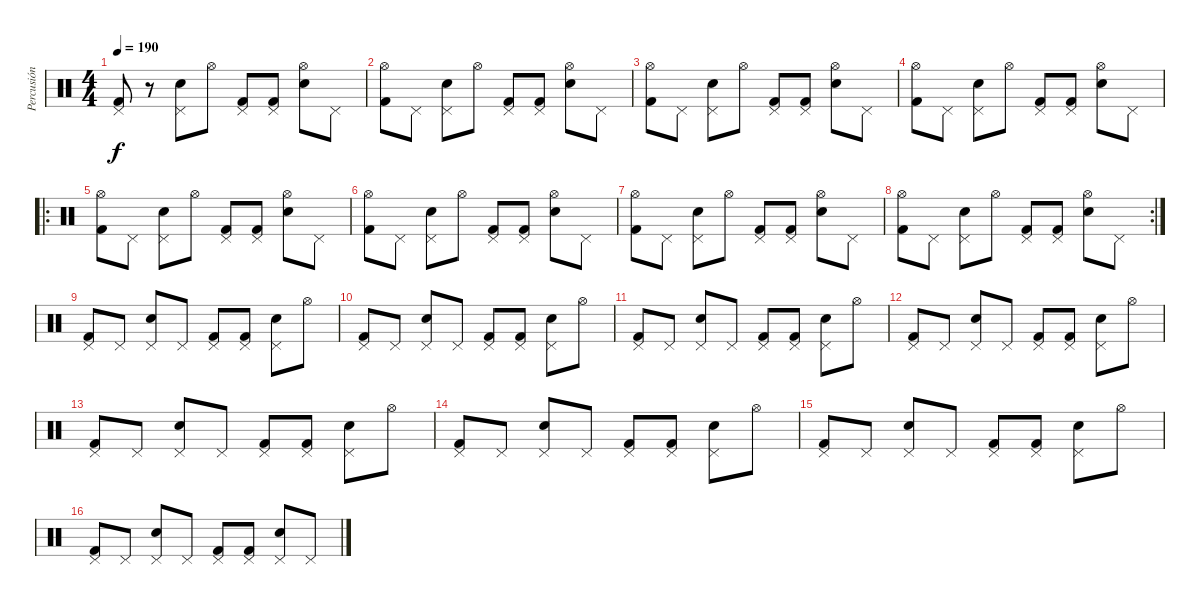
\track ("Percusión" "Percusión") {instrument percussion}
\staff {score}
\articulation defaults
\ts (4 4)
\tempo 190
\clef neutral
\ks c
("Pedal Hi-Hat (hit)" "Kick (hit) 2").8{dy f} r.8 ("Pedal Hi-Hat (hit)" "Snare (hit) 2").8 "Hi-Hat (open)".8 ("Pedal Hi-Hat (hit)" "Kick (hit) 2").8 ("Pedal Hi-Hat (hit)" "Kick (hit) 2").8 ("Hi-Hat (open)" "Snare (hit) 2").8 "Pedal Hi-Hat (hit)".8 |
("Hi-Hat (open)" "Kick (hit) 2").8 "Pedal Hi-Hat (hit)".8 ("Pedal Hi-Hat (hit)" "Snare (hit) 2").8 "Hi-Hat (open)".8 ("Pedal Hi-Hat (hit)" "Kick (hit) 2").8 ("Pedal Hi-Hat (hit)" "Kick (hit) 2").8 ("Hi-Hat (open)" "Snare (hit) 2").8 "Pedal Hi-Hat (hit)".8 |
("Hi-Hat (open)" "Kick (hit) 2").8 "Pedal Hi-Hat (hit)".8 ("Pedal Hi-Hat (hit)" "Snare (hit) 2").8 "Hi-Hat (open)".8 ("Pedal Hi-Hat (hit)" "Kick (hit) 2").8 ("Pedal Hi-Hat (hit)" "Kick (hit) 2").8 ("Hi-Hat (open)" "Snare (hit) 2").8 "Pedal Hi-Hat (hit)".8 |
("Hi-Hat (open)" "Kick (hit) 2").8 "Pedal Hi-Hat (hit)".8 ("Pedal Hi-Hat (hit)" "Snare (hit) 2").8 "Hi-Hat (open)".8 ("Pedal Hi-Hat (hit)" "Kick (hit) 2").8 ("Pedal Hi-Hat (hit)" "Kick (hit) 2").8 ("Hi-Hat (open)" "Snare (hit) 2").8 "Pedal Hi-Hat (hit)".8 |
\ro
("Hi-Hat (open)" "Kick (hit) 2").8 "Pedal Hi-Hat (hit)".8 ("Pedal Hi-Hat (hit)" "Snare (hit) 2").8 "Hi-Hat (open)".8 ("Pedal Hi-Hat (hit)" "Kick (hit) 2").8 ("Pedal Hi-Hat (hit)" "Kick (hit) 2").8 ("Hi-Hat (open)" "Snare (hit) 2").8 "Pedal Hi-Hat (hit)".8 |
("Hi-Hat (open)" "Kick (hit) 2").8 "Pedal Hi-Hat (hit)".8 ("Pedal Hi-Hat (hit)" "Snare (hit) 2").8 "Hi-Hat (open)".8 ("Pedal Hi-Hat (hit)" "Kick (hit) 2").8 ("Pedal Hi-Hat (hit)" "Kick (hit) 2").8 ("Hi-Hat (open)" "Snare (hit) 2").8 "Pedal Hi-Hat (hit)".8 |
("Hi-Hat (open)" "Kick (hit) 2").8 "Pedal Hi-Hat (hit)".8 ("Pedal Hi-Hat (hit)" "Snare (hit) 2").8 "Hi-Hat (open)".8 ("Pedal Hi-Hat (hit)" "Kick (hit) 2").8 ("Pedal Hi-Hat (hit)" "Kick (hit) 2").8 ("Hi-Hat (open)" "Snare (hit) 2").8 "Pedal Hi-Hat (hit)".8 |
\rc 2
("Hi-Hat (open)" "Kick (hit) 2").8 "Pedal Hi-Hat (hit)".8 ("Pedal Hi-Hat (hit)" "Snare (hit) 2").8 "Hi-Hat (open)".8 ("Pedal Hi-Hat (hit)" "Kick (hit) 2").8 ("Pedal Hi-Hat (hit)" "Kick (hit) 2").8 ("Hi-Hat (open)" "Snare (hit) 2").8 "Pedal Hi-Hat (hit)".8 |
("Pedal Hi-Hat (hit)" "Kick (hit) 2").8 "Pedal Hi-Hat (hit)".8 ("Pedal Hi-Hat (hit)" "Snare (hit) 2").8 "Pedal Hi-Hat (hit)".8 ("Pedal Hi-Hat (hit)" "Kick (hit) 2").8 ("Pedal Hi-Hat (hit)" "Kick (hit) 2").8 ("Pedal Hi-Hat (hit)" "Snare (hit) 2").8 "Hi-Hat (open)".8 |
("Pedal Hi-Hat (hit)" "Kick (hit) 2").8 "Pedal Hi-Hat (hit)".8 ("Pedal Hi-Hat (hit)" "Snare (hit) 2").8 "Pedal Hi-Hat (hit)".8 ("Pedal Hi-Hat (hit)" "Kick (hit) 2").8 ("Pedal Hi-Hat (hit)" "Kick (hit) 2").8 ("Pedal Hi-Hat (hit)" "Snare (hit) 2").8 "Hi-Hat (open)".8 |
("Pedal Hi-Hat (hit)" "Kick (hit) 2").8 "Pedal Hi-Hat (hit)".8 ("Pedal Hi-Hat (hit)" "Snare (hit) 2").8 "Pedal Hi-Hat (hit)".8 ("Pedal Hi-Hat (hit)" "Kick (hit) 2").8 ("Pedal Hi-Hat (hit)" "Kick (hit) 2").8 ("Pedal Hi-Hat (hit)" "Snare (hit) 2").8 "Hi-Hat (open)".8 |
("Pedal Hi-Hat (hit)" "Kick (hit) 2").8 "Pedal Hi-Hat (hit)".8 ("Pedal Hi-Hat (hit)" "Snare (hit) 2").8 "Pedal Hi-Hat (hit)".8 ("Pedal Hi-Hat (hit)" "Kick (hit) 2").8 ("Pedal Hi-Hat (hit)" "Kick (hit) 2").8 ("Pedal Hi-Hat (hit)" "Snare (hit) 2").8 "Hi-Hat (open)".8 |
("Pedal Hi-Hat (hit)" "Kick (hit) 2").8 "Pedal Hi-Hat (hit)".8 ("Pedal Hi-Hat (hit)" "Snare (hit) 2").8 "Pedal Hi-Hat (hit)".8 ("Pedal Hi-Hat (hit)" "Kick (hit) 2").8 ("Pedal Hi-Hat (hit)" "Kick (hit) 2").8 ("Pedal Hi-Hat (hit)" "Snare (hit) 2").8 "Hi-Hat (open)".8 |
("Pedal Hi-Hat (hit)" "Kick (hit) 2").8 "Pedal Hi-Hat (hit)".8 ("Pedal Hi-Hat (hit)" "Snare (hit) 2").8 "Pedal Hi-Hat (hit)".8 ("Pedal Hi-Hat (hit)" "Kick (hit) 2").8 ("Pedal Hi-Hat (hit)" "Kick (hit) 2").8 ("Pedal Hi-Hat (hit)" "Snare (hit) 2").8 "Hi-Hat (open)".8 |
("Pedal Hi-Hat (hit)" "Kick (hit) 2").8 "Pedal Hi-Hat (hit)".8 ("Pedal Hi-Hat (hit)" "Snare (hit) 2").8 "Pedal Hi-Hat (hit)".8 ("Pedal Hi-Hat (hit)" "Kick (hit) 2").8 ("Pedal Hi-Hat (hit)" "Kick (hit) 2").8 ("Pedal Hi-Hat (hit)" "Snare (hit) 2").8 "Hi-Hat (open)".8 |
("Pedal Hi-Hat (hit)" "Kick (hit) 2").8 "Pedal Hi-Hat (hit)".8 ("Pedal Hi-Hat (hit)" "Snare (hit) 2").8 "Pedal Hi-Hat (hit)".8 ("Pedal Hi-Hat (hit)" "Kick (hit) 2").8 ("Pedal Hi-Hat (hit)" "Kick (hit) 2").8 ("Pedal Hi-Hat (hit)" "Snare (hit) 2").8 "Pedal Hi-Hat (hit)".8
